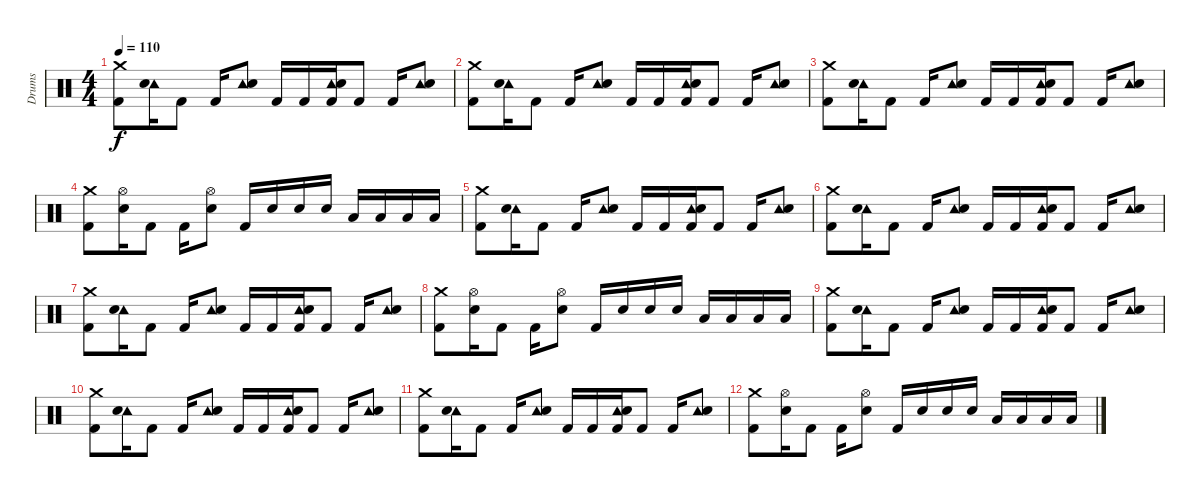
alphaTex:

\track ("Drums" "Drums") {instrument percussion}
\staff {score}
\articulation defaults
\ts (4 4)
\tempo 110
\clef neutral
\ks c
("Crash medium (hit)" "Kick (hit) 2").8{dy f volume 12} ("Tambourine (hit)" "Electric Snare (hit)").16 "Kick (hit) 2".8 "Kick (hit) 2".16 ("Tambourine (hit)" "Electric Snare (hit)").8 "Kick (hit) 2".16 "Kick (hit) 2".16 ("Tambourine (hit)" "Electric Snare (hit)" "Kick (hit) 2").16 "Kick (hit) 2".8 "Kick (hit) 2".16 ("Tambourine (hit)" "Electric Snare (hit)").8 |
("Crash medium (hit)" "Kick (hit) 2").8{volume 11} ("Tambourine (hit)" "Electric Snare (hit)").16 "Kick (hit) 2".8 "Kick (hit) 2".16 ("Tambourine (hit)" "Electric Snare (hit)").8 "Kick (hit) 2".16 "Kick (hit) 2".16 ("Tambourine (hit)" "Electric Snare (hit)" "Kick (hit) 2").16 "Kick (hit) 2".8 "Kick (hit) 2".16 ("Tambourine (hit)" "Electric Snare (hit)").8 |
("Crash medium (hit)" "Kick (hit) 2").8{volume 10} ("Tambourine (hit)" "Electric Snare (hit)").16 "Kick (hit) 2".8 "Kick (hit) 2".16 ("Tambourine (hit)" "Electric Snare (hit)").8 "Kick (hit) 2".16 "Kick (hit) 2".16 ("Tambourine (hit)" "Electric Snare (hit)" "Kick (hit) 2").16 "Kick (hit) 2".8 "Kick (hit) 2".16 ("Tambourine (hit)" "Electric Snare (hit)").8 |
("Crash medium (hit)" "Kick (hit) 2").8{volume 9} ("Hi-Hat (open)" "Electric Snare (hit)").16 "Kick (hit) 2".8 "Kick (hit) 2".16 ("Hi-Hat (open)" "Electric Snare (hit)").8 "Kick (hit) 2".16 "Electric Snare (hit)".16 "Electric Snare (hit)".16 "Electric Snare (hit)".16 "Low Tom (hit)".16 "Low Tom (hit)".16 "Low Tom (hit)".16 "Low Floor Tom (hit)".16 |
("Crash medium (hit)" "Kick (hit) 2").8{volume 8} ("Tambourine (hit)" "Electric Snare (hit)").16 "Kick (hit) 2".8 "Kick (hit) 2".16 ("Tambourine (hit)" "Electric Snare (hit)").8 "Kick (hit) 2".16 "Kick (hit) 2".16 ("Tambourine (hit)" "Electric Snare (hit)" "Kick (hit) 2").16 "Kick (hit) 2".8 "Kick (hit) 2".16 ("Tambourine (hit)" "Electric Snare (hit)").8 |
("Crash medium (hit)" "Kick (hit) 2").8{volume 7} ("Tambourine (hit)" "Electric Snare (hit)").16 "Kick (hit) 2".8 "Kick (hit) 2".16 ("Tambourine (hit)" "Electric Snare (hit)").8 "Kick (hit) 2".16 "Kick (hit) 2".16 ("Tambourine (hit)" "Electric Snare (hit)" "Kick (hit) 2").16 "Kick (hit) 2".8 "Kick (hit) 2".16 ("Tambourine (hit)" "Electric Snare (hit)").8 |
("Crash medium (hit)" "Kick (hit) 2").8{volume 6} ("Tambourine (hit)" "Electric Snare (hit)").16 "Kick (hit) 2".8 "Kick (hit) 2".16 ("Tambourine (hit)" "Electric Snare (hit)").8 "Kick (hit) 2".16 "Kick (hit) 2".16 ("Tambourine (hit)" "Electric Snare (hit)" "Kick (hit) 2").16 "Kick (hit) 2".8 "Kick (hit) 2".16 ("Tambourine (hit)" "Electric Snare (hit)").8 |
("Crash medium (hit)" "Kick (hit) 2").8{volume 5} ("Hi-Hat (open)" "Electric Snare (hit)").16 "Kick (hit) 2".8 "Kick (hit) 2".16 ("Hi-Hat (open)" "Electric Snare (hit)").8 "Kick (hit) 2".16 "Electric Snare (hit)".16 "Electric Snare (hit)".16 "Electric Snare (hit)".16 "Low Tom (hit)".16 "Low Tom (hit)".16 "Low Tom (hit)".16 "Low Floor Tom (hit)".16 |
("Crash medium (hit)" "Kick (hit) 2").8{volume 4} ("Tambourine (hit)" "Electric Snare (hit)").16 "Kick (hit) 2".8 "Kick (hit) 2".16 ("Tambourine (hit)" "Electric Snare (hit)").8 "Kick (hit) 2".16 "Kick (hit) 2".16 ("Tambourine (hit)" "Electric Snare (hit)" "Kick (hit) 2").16 "Kick (hit) 2".8 "Kick (hit) 2".16 ("Tambourine (hit)" "Electric Snare (hit)").8 |
("Crash medium (hit)" "Kick (hit) 2").8{volume 3} ("Tambourine (hit)" "Electric Snare (hit)").16 "Kick (hit) 2".8 "Kick (hit) 2".16 ("Tambourine (hit)" "Electric Snare (hit)").8 "Kick (hit) 2".16 "Kick (hit) 2".16 ("Tambourine (hit)" "Electric Snare (hit)" "Kick (hit) 2").16 "Kick (hit) 2".8 "Kick (hit) 2".16 ("Tambourine (hit)" "Electric Snare (hit)").8 |
("Crash medium (hit)" "Kick (hit) 2").8{volume 2} ("Tambourine (hit)" "Electric Snare (hit)").16 "Kick (hit) 2".8 "Kick (hit) 2".16 ("Tambourine (hit)" "Electric Snare (hit)").8 "Kick (hit) 2".16 "Kick (hit) 2".16 ("Tambourine (hit)" "Electric Snare (hit)" "Kick (hit) 2").16 "Kick (hit) 2".8 "Kick (hit) 2".16 ("Tambourine (hit)" "Electric Snare (hit)").8 |
("Crash medium (hit)" "Kick (hit) 2").8{volume 1} ("Hi-Hat (open)" "Electric Snare (hit)").16 "Kick (hit) 2".8 "Kick (hit) 2".16 ("Hi-Hat (open)" "Electric Snare (hit)").8 "Kick (hit) 2".16 "Electric Snare (hit)".16 "Electric Snare (hit)".16 "Electric Snare (hit)".16 "Low Tom (hit)".16 "Low Tom (hit)".16 "Low Tom (hit)".16 "Low Floor Tom (hit)".16
